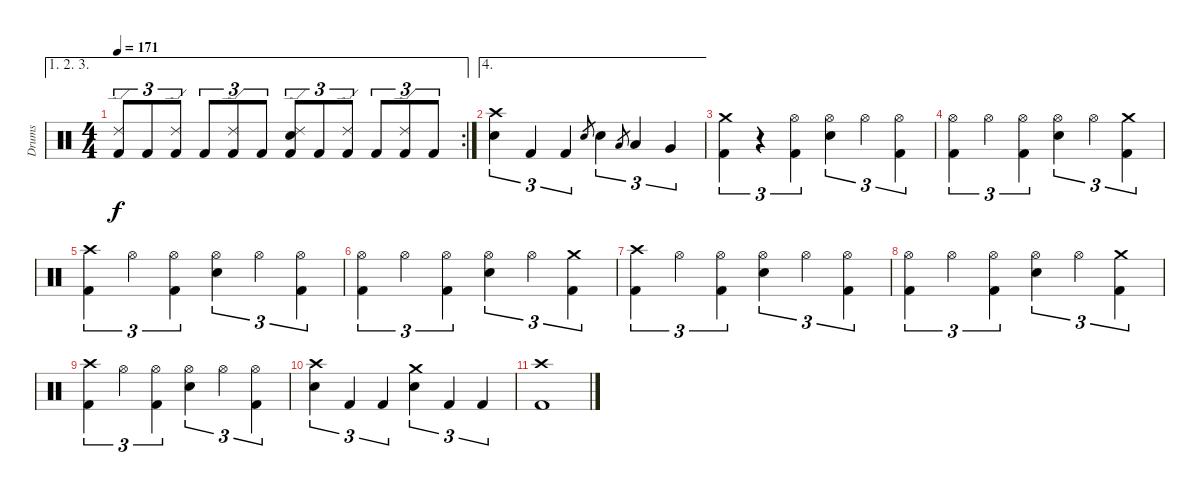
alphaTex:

\track ("Drums" "Drums") {instrument percussion}
\staff {score}
\articulation defaults
\ae (1 2 3)
\rc 2
\ts (4 4)
\tempo 171
\clef neutral
\ks c
("Ride (edge) 2" "Kick (hit) 2").8{tu (3 2) dy f} "Kick (hit) 2".8{tu (3 2)} ("Ride (edge) 2" "Kick (hit) 2").8{tu (3 2)} "Kick (hit) 2".8{tu (3 2)} ("Ride (edge) 2" "Kick (hit) 2").8{tu (3 2)} "Kick (hit) 2".8{tu (3 2)} ("Ride (edge) 2" "Electric Snare (hit)" "Kick (hit) 2").8{tu (3 2)} "Kick (hit) 2".8{tu (3 2)} ("Ride (edge) 2" "Kick (hit) 2").8{tu (3 2)} "Kick (hit) 2".8{tu (3 2)} ("Ride (edge) 2" "Kick (hit) 2").8{tu (3 2)} "Kick (hit) 2".8{tu (3 2)} |
\ae 4
("Crash high (hit)" "Electric Snare (hit)").4{tu (3 2)} "Kick (hit) 2".4{tu (3 2)} "Kick (hit) 2".4{tu (3 2)} "Electric Snare (hit)".8{gr} "Electric Snare (hit)".4{tu (3 2)} "Low Tom (hit)".8{gr} "Low Tom (hit)".4{tu (3 2)} "Very Low Tom (hit)".4{tu (3 2)} |
("Crash medium (hit)" "Kick (hit) 2").4{tu (3 2)} r.4{tu (3 2)} ("Hi-Hat (open)" "Kick (hit) 2").4{tu (3 2)} ("Hi-Hat (open)" "Electric Snare (hit)").4{tu (3 2)} "Hi-Hat (open)".4{tu (3 2)} ("Hi-Hat (open)" "Kick (hit) 2").4{tu (3 2)} |
("Hi-Hat (open)" "Kick (hit) 2").4{tu (3 2)} "Hi-Hat (open)".4{tu (3 2)} ("Hi-Hat (open)" "Kick (hit) 2").4{tu (3 2)} ("Hi-Hat (open)" "Electric Snare (hit)").4{tu (3 2)} "Hi-Hat (open)".4{tu (3 2)} ("Crash medium (hit)" "Kick (hit) 2").4{tu (3 2)} |
("Crash high (hit)" "Kick (hit) 2").4{tu (3 2)} "Hi-Hat (open)".4{tu (3 2)} ("Hi-Hat (open)" "Kick (hit) 2").4{tu (3 2)} ("Hi-Hat (open)" "Electric Snare (hit)").4{tu (3 2)} "Hi-Hat (open)".4{tu (3 2)} ("Hi-Hat (open)" "Kick (hit) 2").4{tu (3 2)} |
("Hi-Hat (open)" "Kick (hit) 2").4{tu (3 2)} "Hi-Hat (open)".4{tu (3 2)} ("Hi-Hat (open)" "Kick (hit) 2").4{tu (3 2)} ("Hi-Hat (open)" "Electric Snare (hit)").4{tu (3 2)} "Hi-Hat (open)".4{tu (3 2)} ("Crash medium (hit)" "Kick (hit) 2").4{tu (3 2)} |
("Crash high (hit)" "Kick (hit) 2").4{tu (3 2)} "Hi-Hat (open)".4{tu (3 2)} ("Hi-Hat (open)" "Kick (hit) 2").4{tu (3 2)} ("Hi-Hat (open)" "Electric Snare (hit)").4{tu (3 2)} "Hi-Hat (open)".4{tu (3 2)} ("Hi-Hat (open)" "Kick (hit) 2").4{tu (3 2)} |
("Hi-Hat (open)" "Kick (hit) 2").4{tu (3 2)} "Hi-Hat (open)".4{tu (3 2)} ("Hi-Hat (open)" "Kick (hit) 2").4{tu (3 2)} ("Hi-Hat (open)" "Electric Snare (hit)").4{tu (3 2)} "Hi-Hat (open)".4{tu (3 2)} ("Crash medium (hit)" "Kick (hit) 2").4{tu (3 2)} |
("Crash high (hit)" "Kick (hit) 2").4{tu (3 2)} "Hi-Hat (open)".4{tu (3 2)} ("Hi-Hat (open)" "Kick (hit) 2").4{tu (3 2)} ("Hi-Hat (open)" "Electric Snare (hit)").4{tu (3 2)} "Hi-Hat (open)".4{tu (3 2)} ("Hi-Hat (open)" "Kick (hit) 2").4{tu (3 2)} |
("Crash high (hit)" "Electric Snare (hit)").4{tu (3 2)} "Kick (hit) 2".4{tu (3 2)} "Kick (hit) 2".4{tu (3 2)} ("Crash medium (hit)" "Electric Snare (hit)").4{tu (3 2)} "Kick (hit) 2".4{tu (3 2)} "Kick (hit) 2".4{tu (3 2)} |
("Crash high (hit)" "Kick (hit) 2").1
